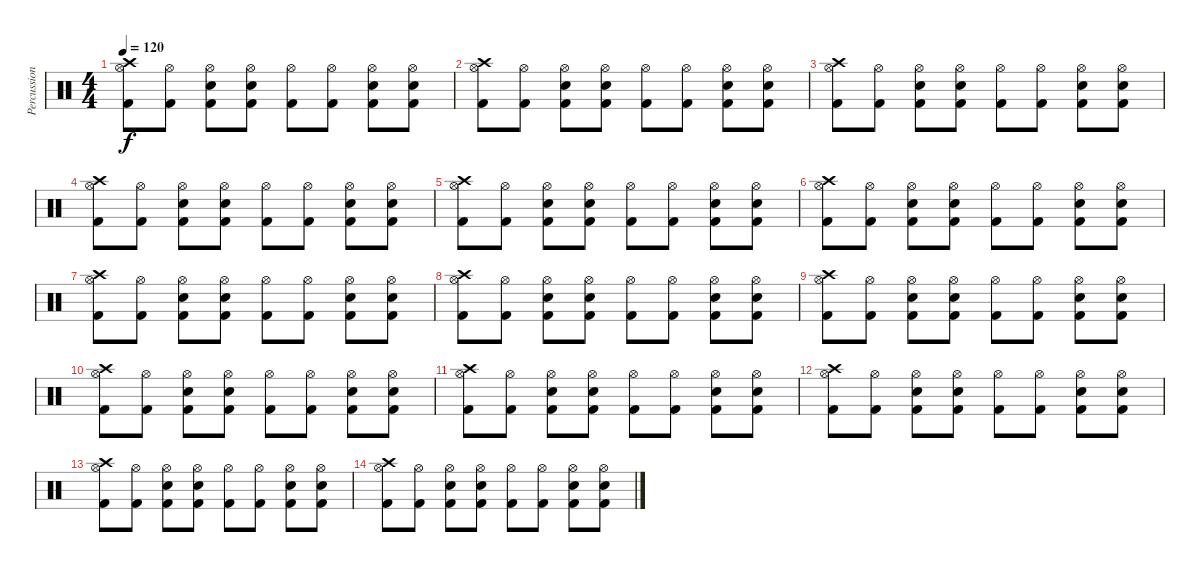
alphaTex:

\track ("Percussioni" "Percussion") {instrument percussion}
\staff {score}
\articulation defaults
\ts (4 4)
\tempo 120
\clef neutral
\ks c
("Hi-Hat (open)" "Kick (hit) 2" "Crash high (hit)").8{dy f} ("Hi-Hat (open)" "Kick (hit) 2").8 ("Hi-Hat (open)" "Kick (hit) 2" "Electric Snare (hit)").8 ("Hi-Hat (open)" "Kick (hit) 2" "Electric Snare (hit)").8 ("Hi-Hat (open)" "Kick (hit) 2").8 ("Hi-Hat (open)" "Kick (hit) 2").8 ("Hi-Hat (open)" "Kick (hit) 2" "Electric Snare (hit)").8 ("Hi-Hat (open)" "Kick (hit) 2" "Electric Snare (hit)").8 |
("Hi-Hat (open)" "Kick (hit) 2" "Crash high (hit)").8 ("Hi-Hat (open)" "Kick (hit) 2").8 ("Hi-Hat (open)" "Kick (hit) 2" "Electric Snare (hit)").8 ("Hi-Hat (open)" "Kick (hit) 2" "Electric Snare (hit)").8 ("Hi-Hat (open)" "Kick (hit) 2").8 ("Hi-Hat (open)" "Kick (hit) 2").8 ("Hi-Hat (open)" "Kick (hit) 2" "Electric Snare (hit)").8 ("Hi-Hat (open)" "Kick (hit) 2" "Electric Snare (hit)").8 |
("Hi-Hat (open)" "Kick (hit) 2" "Crash high (hit)").8 ("Hi-Hat (open)" "Kick (hit) 2").8 ("Hi-Hat (open)" "Kick (hit) 2" "Electric Snare (hit)").8 ("Hi-Hat (open)" "Kick (hit) 2" "Electric Snare (hit)").8 ("Hi-Hat (open)" "Kick (hit) 2").8 ("Hi-Hat (open)" "Kick (hit) 2").8 ("Hi-Hat (open)" "Kick (hit) 2" "Electric Snare (hit)").8 ("Hi-Hat (open)" "Kick (hit) 2" "Electric Snare (hit)").8 |
("Hi-Hat (open)" "Kick (hit) 2" "Crash high (hit)").8 ("Hi-Hat (open)" "Kick (hit) 2").8 ("Hi-Hat (open)" "Kick (hit) 2" "Electric Snare (hit)").8 ("Hi-Hat (open)" "Kick (hit) 2" "Electric Snare (hit)").8 ("Hi-Hat (open)" "Kick (hit) 2").8 ("Hi-Hat (open)" "Kick (hit) 2").8 ("Hi-Hat (open)" "Kick (hit) 2" "Electric Snare (hit)").8 ("Hi-Hat (open)" "Kick (hit) 2" "Electric Snare (hit)").8 |
("Hi-Hat (open)" "Kick (hit) 2" "Crash high (hit)").8 ("Hi-Hat (open)" "Kick (hit) 2").8 ("Hi-Hat (open)" "Kick (hit) 2" "Electric Snare (hit)").8 ("Hi-Hat (open)" "Kick (hit) 2" "Electric Snare (hit)").8 ("Hi-Hat (open)" "Kick (hit) 2").8 ("Hi-Hat (open)" "Kick (hit) 2").8 ("Hi-Hat (open)" "Kick (hit) 2" "Electric Snare (hit)").8 ("Hi-Hat (open)" "Kick (hit) 2" "Electric Snare (hit)").8 |
("Hi-Hat (open)" "Kick (hit) 2" "Crash high (hit)").8 ("Hi-Hat (open)" "Kick (hit) 2").8 ("Hi-Hat (open)" "Kick (hit) 2" "Electric Snare (hit)").8 ("Hi-Hat (open)" "Kick (hit) 2" "Electric Snare (hit)").8 ("Hi-Hat (open)" "Kick (hit) 2").8 ("Hi-Hat (open)" "Kick (hit) 2").8 ("Hi-Hat (open)" "Kick (hit) 2" "Electric Snare (hit)").8 ("Hi-Hat (open)" "Kick (hit) 2" "Electric Snare (hit)").8 |
("Hi-Hat (open)" "Kick (hit) 2" "Crash high (hit)").8 ("Hi-Hat (open)" "Kick (hit) 2").8 ("Hi-Hat (open)" "Kick (hit) 2" "Electric Snare (hit)").8 ("Hi-Hat (open)" "Kick (hit) 2" "Electric Snare (hit)").8 ("Hi-Hat (open)" "Kick (hit) 2").8 ("Hi-Hat (open)" "Kick (hit) 2").8 ("Hi-Hat (open)" "Kick (hit) 2" "Electric Snare (hit)").8 ("Hi-Hat (open)" "Kick (hit) 2" "Electric Snare (hit)").8 |
("Hi-Hat (open)" "Kick (hit) 2" "Crash high (hit)").8 ("Hi-Hat (open)" "Kick (hit) 2").8 ("Hi-Hat (open)" "Kick (hit) 2" "Electric Snare (hit)").8 ("Hi-Hat (open)" "Kick (hit) 2" "Electric Snare (hit)").8 ("Hi-Hat (open)" "Kick (hit) 2").8 ("Hi-Hat (open)" "Kick (hit) 2").8 ("Hi-Hat (open)" "Kick (hit) 2" "Electric Snare (hit)").8 ("Hi-Hat (open)" "Kick (hit) 2" "Electric Snare (hit)").8 |
("Hi-Hat (open)" "Kick (hit) 2" "Crash high (hit)").8 ("Hi-Hat (open)" "Kick (hit) 2").8 ("Hi-Hat (open)" "Kick (hit) 2" "Electric Snare (hit)").8 ("Hi-Hat (open)" "Kick (hit) 2" "Electric Snare (hit)").8 ("Hi-Hat (open)" "Kick (hit) 2").8 ("Hi-Hat (open)" "Kick (hit) 2").8 ("Hi-Hat (open)" "Kick (hit) 2" "Electric Snare (hit)").8 ("Hi-Hat (open)" "Kick (hit) 2" "Electric Snare (hit)").8 |
("Hi-Hat (open)" "Kick (hit) 2" "Crash high (hit)").8 ("Hi-Hat (open)" "Kick (hit) 2").8 ("Hi-Hat (open)" "Kick (hit) 2" "Electric Snare (hit)").8 ("Hi-Hat (open)" "Kick (hit) 2" "Electric Snare (hit)").8 ("Hi-Hat (open)" "Kick (hit) 2").8 ("Hi-Hat (open)" "Kick (hit) 2").8 ("Hi-Hat (open)" "Kick (hit) 2" "Electric Snare (hit)").8 ("Hi-Hat (open)" "Kick (hit) 2" "Electric Snare (hit)").8 |
("Hi-Hat (open)" "Kick (hit) 2" "Crash high (hit)").8 ("Hi-Hat (open)" "Kick (hit) 2").8 ("Hi-Hat (open)" "Kick (hit) 2" "Electric Snare (hit)").8 ("Hi-Hat (open)" "Kick (hit) 2" "Electric Snare (hit)").8 ("Hi-Hat (open)" "Kick (hit) 2").8 ("Hi-Hat (open)" "Kick (hit) 2").8 ("Hi-Hat (open)" "Kick (hit) 2" "Electric Snare (hit)").8 ("Hi-Hat (open)" "Kick (hit) 2" "Electric Snare (hit)").8 |
("Hi-Hat (open)" "Kick (hit) 2" "Crash high (hit)").8 ("Hi-Hat (open)" "Kick (hit) 2").8 ("Hi-Hat (open)" "Kick (hit) 2" "Electric Snare (hit)").8 ("Hi-Hat (open)" "Kick (hit) 2" "Electric Snare (hit)").8 ("Hi-Hat (open)" "Kick (hit) 2").8 ("Hi-Hat (open)" "Kick (hit) 2").8 ("Hi-Hat (open)" "Kick (hit) 2" "Electric Snare (hit)").8 ("Hi-Hat (open)" "Kick (hit) 2" "Electric Snare (hit)").8 |
("Hi-Hat (open)" "Kick (hit) 2" "Crash high (hit)").8 ("Hi-Hat (open)" "Kick (hit) 2").8 ("Hi-Hat (open)" "Kick (hit) 2" "Electric Snare (hit)").8 ("Hi-Hat (open)" "Kick (hit) 2" "Electric Snare (hit)").8 ("Hi-Hat (open)" "Kick (hit) 2").8 ("Hi-Hat (open)" "Kick (hit) 2").8 ("Hi-Hat (open)" "Kick (hit) 2" "Electric Snare (hit)").8 ("Hi-Hat (open)" "Kick (hit) 2" "Electric Snare (hit)").8 |
("Hi-Hat (open)" "Kick (hit) 2" "Crash high (hit)").8 ("Hi-Hat (open)" "Kick (hit) 2").8 ("Hi-Hat (open)" "Kick (hit) 2" "Electric Snare (hit)").8 ("Hi-Hat (open)" "Kick (hit) 2" "Electric Snare (hit)").8 ("Hi-Hat (open)" "Kick (hit) 2").8 ("Hi-Hat (open)" "Kick (hit) 2").8 ("Hi-Hat (open)" "Kick (hit) 2" "Electric Snare (hit)").8 ("Hi-Hat (open)" "Kick (hit) 2" "Electric Snare (hit)").8
